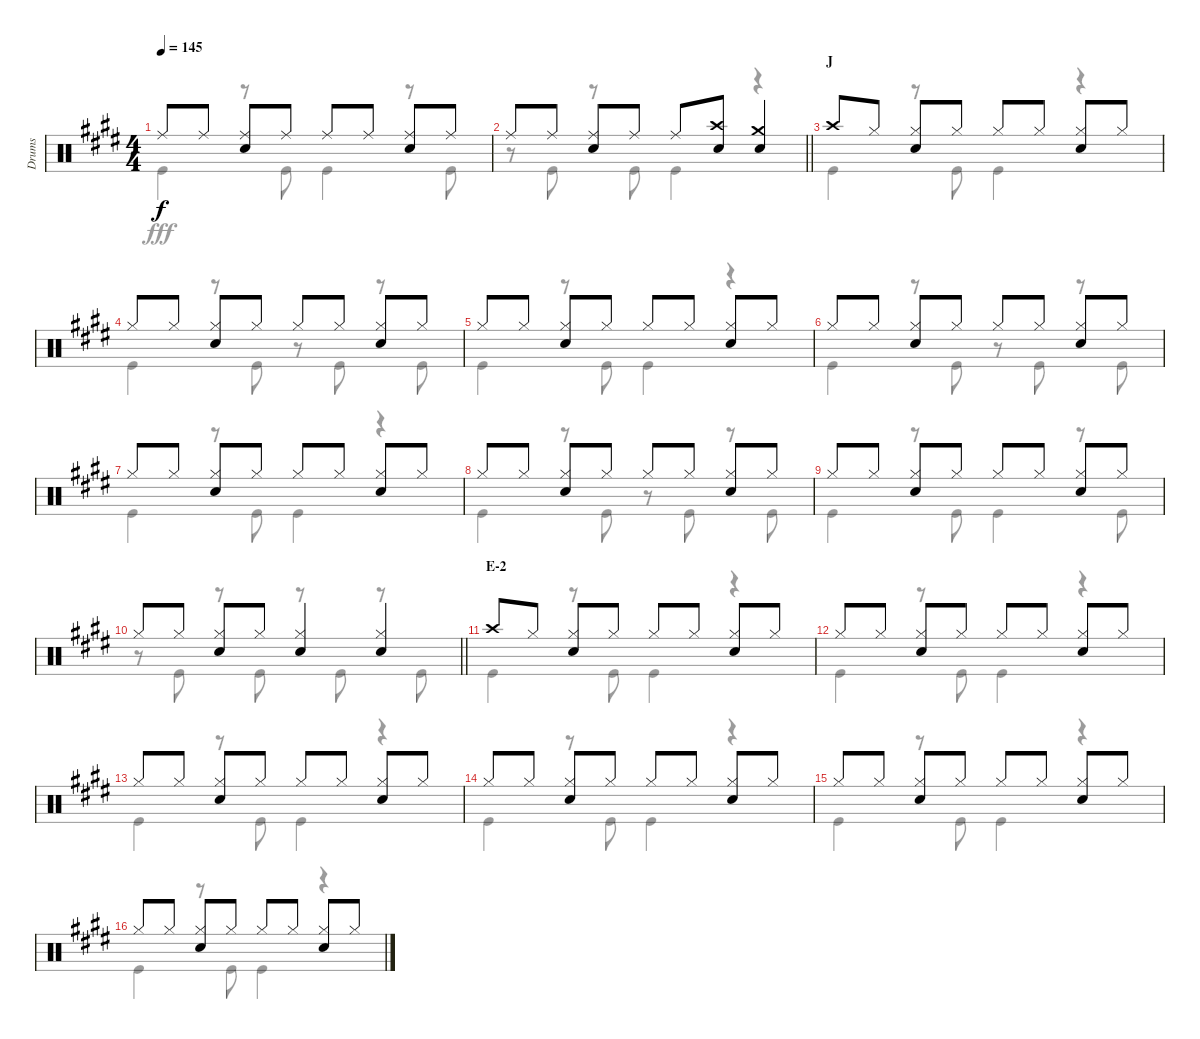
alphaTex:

\track ("Drums" "Drums") {instrument percussion}
\staff {score}
\articulation defaults
\voice
\ts (4 4)
\tempo 145
\clef neutral
\ks e "Ride (middle)".8{dy f} "Ride (middle)".8
("Ride (middle)" "Snare (hit) 2").8 "Ride (middle)".8 "Ride (middle)".8 "Ride (middle)".8 ("Ride (middle)" "Snare (hit) 2").8 "Ride (middle)".8 |
\barLineRight lightlight "Ride (middle)".8 "Ride (middle)".8
("Ride (middle)" "Snare (hit) 2").8 "Ride (middle)".8 "Ride (middle)".8 ("Crash high (hit)" "Snare (hit) 2").8 ("Crash medium (hit)" "Snare (hit) 2").4 |
\section ("" "J")
"Crash high (hit)".8 "Hi-Hat (closed)".8 ("Hi-Hat (closed)" "Snare (hit) 2").8 "Hi-Hat (closed)".8 "Hi-Hat (closed)".8 "Hi-Hat (closed)".8 ("Hi-Hat (closed)" "Snare (hit) 2").8 "Hi-Hat (closed)".8 |
"Hi-Hat (closed)".8 "Hi-Hat (closed)".8 ("Hi-Hat (closed)" "Snare (hit) 2").8 "Hi-Hat (closed)".8 "Hi-Hat (closed)".8 "Hi-Hat (closed)".8 ("Hi-Hat (closed)" "Snare (hit) 2").8 "Hi-Hat (closed)".8 |
"Hi-Hat (closed)".8 "Hi-Hat (closed)".8 ("Hi-Hat (closed)" "Snare (hit) 2").8 "Hi-Hat (closed)".8 "Hi-Hat (closed)".8 "Hi-Hat (closed)".8 ("Hi-Hat (closed)" "Snare (hit) 2").8 "Hi-Hat (closed)".8 |
"Hi-Hat (closed)".8 "Hi-Hat (closed)".8 ("Hi-Hat (closed)" "Snare (hit) 2").8 "Hi-Hat (closed)".8 "Hi-Hat (closed)".8 "Hi-Hat (closed)".8 ("Hi-Hat (closed)" "Snare (hit) 2").8 "Hi-Hat (closed)".8 |
"Hi-Hat (closed)".8 "Hi-Hat (closed)".8 ("Hi-Hat (closed)" "Snare (hit) 2").8 "Hi-Hat (closed)".8 "Hi-Hat (closed)".8 "Hi-Hat (closed)".8 ("Hi-Hat (closed)" "Snare (hit) 2").8 "Hi-Hat (closed)".8 |
"Hi-Hat (closed)".8 "Hi-Hat (closed)".8 ("Hi-Hat (closed)" "Snare (hit) 2").8 "Hi-Hat (closed)".8 "Hi-Hat (closed)".8 "Hi-Hat (closed)".8 ("Hi-Hat (closed)" "Snare (hit) 2").8 "Hi-Hat (closed)".8 |
"Hi-Hat (closed)".8 "Hi-Hat (closed)".8 ("Hi-Hat (closed)" "Snare (hit) 2").8 "Hi-Hat (closed)".8 "Hi-Hat (closed)".8 "Hi-Hat (closed)".8 ("Hi-Hat (closed)" "Snare (hit) 2").8 "Hi-Hat (closed)".8 |
\barLineRight lightlight "Hi-Hat (closed)".8 "Hi-Hat (closed)".8
("Hi-Hat (closed)" "Snare (hit) 2").8 "Hi-Hat (closed)".8 ("Hi-Hat (closed)" "Snare (hit) 2").4 ("Hi-Hat (closed)" "Snare (hit) 2").4 |
\section ("" "E-2")
"Crash high (hit)".8 "Hi-Hat (closed)".8 ("Hi-Hat (closed)" "Snare (hit) 2").8 "Hi-Hat (closed)".8 "Hi-Hat (closed)".8 "Hi-Hat (closed)".8 ("Hi-Hat (closed)" "Snare (hit) 2").8 "Hi-Hat (closed)".8 |
"Hi-Hat (closed)".8 "Hi-Hat (closed)".8 ("Hi-Hat (closed)" "Snare (hit) 2").8 "Hi-Hat (closed)".8 "Hi-Hat (closed)".8 "Hi-Hat (closed)".8 ("Hi-Hat (closed)" "Snare (hit) 2").8 "Hi-Hat (closed)".8 |
"Hi-Hat (closed)".8 "Hi-Hat (closed)".8 ("Hi-Hat (closed)" "Snare (hit) 2").8 "Hi-Hat (closed)".8 "Hi-Hat (closed)".8 "Hi-Hat (closed)".8 ("Hi-Hat (closed)" "Snare (hit) 2").8 "Hi-Hat (closed)".8 |
"Hi-Hat (closed)".8 "Hi-Hat (closed)".8 ("Hi-Hat (closed)" "Snare (hit) 2").8 "Hi-Hat (closed)".8 "Hi-Hat (closed)".8 "Hi-Hat (closed)".8 ("Hi-Hat (closed)" "Snare (hit) 2").8 "Hi-Hat (closed)".8 |
"Hi-Hat (closed)".8 "Hi-Hat (closed)".8 ("Hi-Hat (closed)" "Snare (hit) 2").8 "Hi-Hat (closed)".8 "Hi-Hat (closed)".8 "Hi-Hat (closed)".8 ("Hi-Hat (closed)" "Snare (hit) 2").8 "Hi-Hat (closed)".8 |
"Hi-Hat (closed)".8 "Hi-Hat (closed)".8 ("Hi-Hat (closed)" "Snare (hit) 2").8 "Hi-Hat (closed)".8 "Hi-Hat (closed)".8 "Hi-Hat (closed)".8 ("Hi-Hat (closed)" "Snare (hit) 2").8 "Hi-Hat (closed)".8
\voice
\clef neutral
\ottava regular
\simile none
\ks e "Kick (hit)".4{dy fff}
r.8 "Kick (hit)".8 "Kick (hit)".4 r.8 "Kick (hit)".8 |
\barLineRight lightlight
r.8 "Kick (hit)".8 r.8 "Kick (hit)".8 "Kick (hit)".4 r.4 |
"Kick (hit)".4 r.8 "Kick (hit)".8 "Kick (hit)".4 r.4 |
"Kick (hit)".4 r.8 "Kick (hit)".8 r.8 "Kick (hit)".8 r.8 "Kick (hit)".8 |
"Kick (hit)".4 r.8 "Kick (hit)".8 "Kick (hit)".4 r.4 |
"Kick (hit)".4 r.8 "Kick (hit)".8 r.8 "Kick (hit)".8 r.8 "Kick (hit)".8 |
"Kick (hit)".4 r.8 "Kick (hit)".8 "Kick (hit)".4 r.4 |
"Kick (hit)".4 r.8 "Kick (hit)".8 r.8 "Kick (hit)".8 r.8 "Kick (hit)".8 |
"Kick (hit)".4 r.8 "Kick (hit)".8 "Kick (hit)".4 r.8 "Kick (hit)".8 |
\barLineRight lightlight
r.8 "Kick (hit)".8 r.8 "Kick (hit)".8 r.8 "Kick (hit)".8 r.8 "Kick (hit)".8 |
"Kick (hit)".4 r.8 "Kick (hit)".8 "Kick (hit)".4 r.4 |
"Kick (hit)".4 r.8 "Kick (hit)".8 "Kick (hit)".4 r.4 |
"Kick (hit)".4 r.8 "Kick (hit)".8 "Kick (hit)".4 r.4 |
"Kick (hit)".4 r.8 "Kick (hit)".8 "Kick (hit)".4 r.4 |
"Kick (hit)".4 r.8 "Kick (hit)".8 "Kick (hit)".4 r.4 |
"Kick (hit)".4 r.8 "Kick (hit)".8 "Kick (hit)".4 r.4
